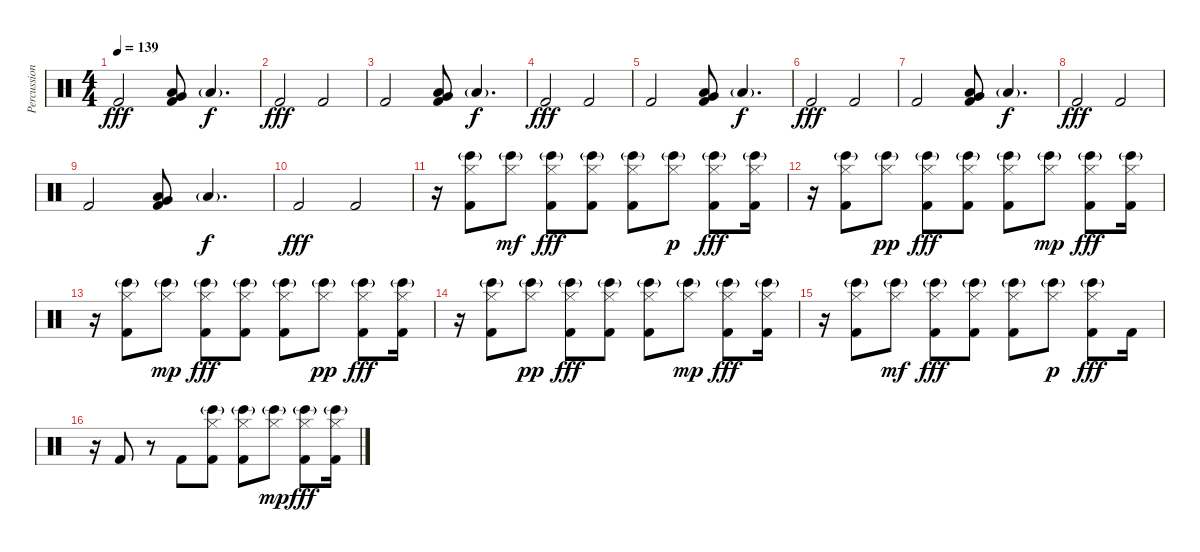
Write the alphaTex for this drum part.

\track ("Percussion" "Percussion") {instrument percussion}
\staff {score}
\articulation defaults
\ts (4 4)
\tempo 139
\clef neutral
\ks c "Kick (hit) 2".2{dy fff}
("Kick (hit) 2" "Very Low Tom (hit)" "Low Floor Tom (hit)").8 "Low Floor Tom (hit)"{g}.4{d dy f} |
"Kick (hit) 2".2{dy fff} "Kick (hit) 2".2 |
"Kick (hit) 2".2 ("Kick (hit) 2" "Very Low Tom (hit)" "Low Floor Tom (hit)").8 "Low Floor Tom (hit)"{g}.4{d dy f} |
"Kick (hit) 2".2{dy fff} "Kick (hit) 2".2 |
"Kick (hit) 2".2 ("Kick (hit) 2" "Very Low Tom (hit)" "Low Floor Tom (hit)").8 "Low Floor Tom (hit)"{g}.4{d dy f} |
"Kick (hit) 2".2{dy fff} "Kick (hit) 2".2 |
"Kick (hit) 2".2 ("Kick (hit) 2" "Very Low Tom (hit)" "Low Floor Tom (hit)").8 "Low Floor Tom (hit)"{g}.4{d dy f} |
"Kick (hit) 2".2{dy fff} "Kick (hit) 2".2 |
"Kick (hit) 2".2 ("Kick (hit) 2" "Very Low Tom (hit)" "Low Floor Tom (hit)").8 "Low Floor Tom (hit)"{g}.4{d dy f} |
"Kick (hit) 2".2{dy fff} "Kick (hit) 2".2 |
r.16 ("Hi-Hat (closed)" "Bongo High (hit)"{g} "Kick (hit) 2").8{balance 16} ("Hi-Hat (closed)" "Bongo High (hit)"{g}).8{dy mf balance 0} ("Hi-Hat (closed)" "Bongo High (hit)"{g} "Kick (hit) 2").8{dy fff balance 16} ("Hi-Hat (closed)" "Bongo High (hit)"{g} "Kick (hit) 2").8{balance 0} ("Hi-Hat (closed)" "Bongo High (hit)"{g} "Kick (hit) 2").8{balance 16} ("Hi-Hat (closed)" "Bongo High (hit)"{g}).8{dy p balance 0} ("Hi-Hat (closed)" "Bongo High (hit)"{g} "Kick (hit) 2").8{dy fff balance 16} ("Hi-Hat (closed)" "Bongo High (hit)"{g} "Kick (hit) 2").16{balance 0} |
r.16 ("Hi-Hat (closed)" "Bongo High (hit)"{g} "Kick (hit) 2").8{balance 16} ("Hi-Hat (closed)" "Bongo High (hit)"{g}).8{dy pp balance 0} ("Hi-Hat (closed)" "Bongo High (hit)"{g} "Kick (hit) 2").8{dy fff balance 16} ("Hi-Hat (closed)" "Bongo High (hit)"{g} "Kick (hit) 2").8{balance 0} ("Hi-Hat (closed)" "Bongo High (hit)"{g} "Kick (hit) 2").8{balance 16} ("Hi-Hat (closed)" "Bongo High (hit)"{g}).8{dy mp balance 0} ("Hi-Hat (closed)" "Bongo High (hit)"{g} "Kick (hit) 2").8{dy fff balance 16} ("Hi-Hat (closed)" "Bongo High (hit)"{g} "Kick (hit) 2").16{balance 0} |
r.16 ("Hi-Hat (closed)" "Bongo High (hit)"{g} "Kick (hit) 2").8{balance 16} ("Hi-Hat (closed)" "Bongo High (hit)"{g}).8{dy mp balance 0} ("Hi-Hat (closed)" "Bongo High (hit)"{g} "Kick (hit) 2").8{dy fff balance 16} ("Hi-Hat (closed)" "Bongo High (hit)"{g} "Kick (hit) 2").8{balance 0} ("Hi-Hat (closed)" "Bongo High (hit)"{g} "Kick (hit) 2").8{balance 16} ("Hi-Hat (closed)" "Bongo High (hit)"{g}).8{dy pp balance 0} ("Hi-Hat (closed)" "Bongo High (hit)"{g} "Kick (hit) 2").8{dy fff balance 16} ("Hi-Hat (closed)" "Bongo High (hit)"{g} "Kick (hit) 2").16{balance 0} |
r.16 ("Hi-Hat (closed)" "Bongo High (hit)"{g} "Kick (hit) 2").8{balance 16} ("Hi-Hat (closed)" "Bongo High (hit)"{g}).8{dy pp balance 0} ("Hi-Hat (closed)" "Bongo High (hit)"{g} "Kick (hit) 2").8{dy fff balance 16} ("Hi-Hat (closed)" "Bongo High (hit)"{g} "Kick (hit) 2").8{balance 0} ("Hi-Hat (closed)" "Bongo High (hit)"{g} "Kick (hit) 2").8{balance 16} ("Hi-Hat (closed)" "Bongo High (hit)"{g}).8{dy mp balance 0} ("Hi-Hat (closed)" "Bongo High (hit)"{g} "Kick (hit) 2").8{dy fff balance 16} ("Hi-Hat (closed)" "Bongo High (hit)"{g} "Kick (hit) 2").16{balance 0} |
r.16 ("Hi-Hat (closed)" "Bongo High (hit)"{g} "Kick (hit) 2").8{balance 16} ("Hi-Hat (closed)" "Bongo High (hit)"{g}).8{dy mf balance 0} ("Hi-Hat (closed)" "Bongo High (hit)"{g} "Kick (hit) 2").8{dy fff balance 16} ("Hi-Hat (closed)" "Bongo High (hit)"{g} "Kick (hit) 2").8{balance 0} ("Hi-Hat (closed)" "Bongo High (hit)"{g} "Kick (hit) 2").8{balance 16} ("Hi-Hat (closed)" "Bongo High (hit)"{g}).8{dy p balance 0} ("Hi-Hat (closed)" "Bongo High (hit)"{g} "Kick (hit) 2").8{dy fff balance 16} "Kick (hit) 2".16{balance 0} |
r.16 "Kick (hit) 2".8{balance 16} r.8{balance 0} "Kick (hit) 2".8{balance 16} ("Hi-Hat (closed)" "Bongo High (hit)"{g} "Kick (hit) 2").8{balance 0} ("Hi-Hat (closed)" "Bongo High (hit)"{g} "Kick (hit) 2").8{balance 16} ("Hi-Hat (closed)" "Bongo High (hit)"{g}).8{dy mp balance 0} ("Hi-Hat (closed)" "Bongo High (hit)"{g} "Kick (hit) 2").8{dy fff balance 16} ("Hi-Hat (closed)" "Bongo High (hit)"{g} "Kick (hit) 2").16{balance 0}
